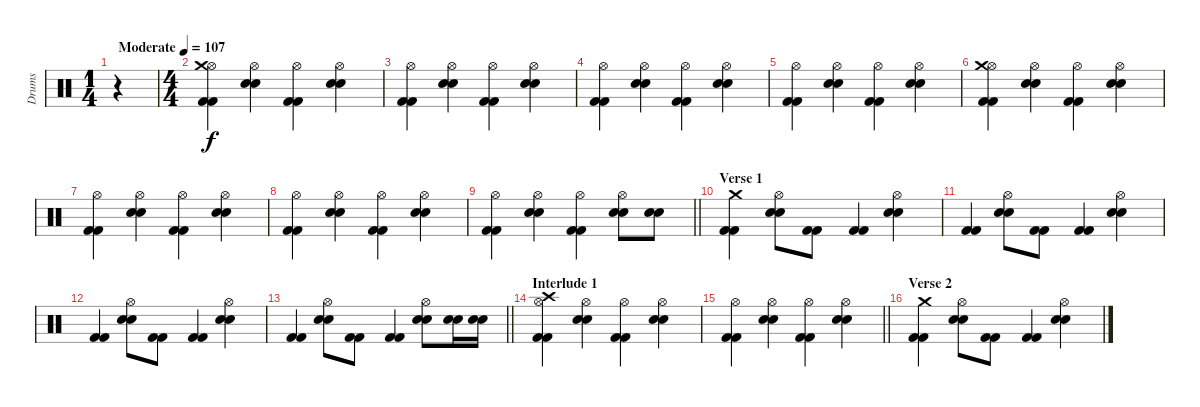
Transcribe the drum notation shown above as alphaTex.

\track ("Drums" "Drums") {instrument percussion}
\staff {score}
\articulation defaults
\ts (1 4)
\tempo (107 "Moderate")
\clef neutral
\ks c
r.4{dy f} |
\ts (4 4)
("Kick (hit) 2" "Kick (hit) 2" "Hi-Hat (open)" "Crash medium (hit)").4 ("Snare (hit) 2" "Snare (hit) 2" "Hi-Hat (open)").4 ("Kick (hit) 2" "Kick (hit) 2" "Hi-Hat (open)").4 ("Snare (hit) 2" "Snare (hit) 2" "Hi-Hat (open)").4 |
("Kick (hit) 2" "Kick (hit) 2" "Hi-Hat (open)").4 ("Snare (hit) 2" "Snare (hit) 2" "Hi-Hat (open)").4 ("Kick (hit) 2" "Kick (hit) 2" "Hi-Hat (open)").4 ("Snare (hit) 2" "Snare (hit) 2" "Hi-Hat (open)").4 |
("Kick (hit) 2" "Kick (hit) 2" "Hi-Hat (open)").4 ("Snare (hit) 2" "Snare (hit) 2" "Hi-Hat (open)").4 ("Kick (hit) 2" "Kick (hit) 2" "Hi-Hat (open)").4 ("Snare (hit) 2" "Snare (hit) 2" "Hi-Hat (open)").4 |
("Kick (hit) 2" "Kick (hit) 2" "Hi-Hat (open)").4 ("Snare (hit) 2" "Snare (hit) 2" "Hi-Hat (open)").4 ("Kick (hit) 2" "Kick (hit) 2" "Hi-Hat (open)").4 ("Snare (hit) 2" "Snare (hit) 2" "Hi-Hat (open)").4 |
("Kick (hit) 2" "Kick (hit) 2" "Hi-Hat (open)" "Crash medium (hit)").4 ("Snare (hit) 2" "Snare (hit) 2" "Hi-Hat (open)").4 ("Kick (hit) 2" "Kick (hit) 2" "Hi-Hat (open)").4 ("Snare (hit) 2" "Snare (hit) 2" "Hi-Hat (open)").4 |
("Kick (hit) 2" "Kick (hit) 2" "Hi-Hat (open)").4 ("Snare (hit) 2" "Snare (hit) 2" "Hi-Hat (open)").4 ("Kick (hit) 2" "Kick (hit) 2" "Hi-Hat (open)").4 ("Snare (hit) 2" "Snare (hit) 2" "Hi-Hat (open)").4 |
("Kick (hit) 2" "Kick (hit) 2" "Hi-Hat (open)").4 ("Snare (hit) 2" "Snare (hit) 2" "Hi-Hat (open)").4 ("Kick (hit) 2" "Kick (hit) 2" "Hi-Hat (open)").4 ("Snare (hit) 2" "Snare (hit) 2" "Hi-Hat (open)").4 |
\barLineRight lightlight
("Kick (hit) 2" "Kick (hit) 2" "Hi-Hat (open)").4 ("Snare (hit) 2" "Snare (hit) 2" "Hi-Hat (open)").4 ("Kick (hit) 2" "Kick (hit) 2" "Hi-Hat (open)").4 ("Snare (hit) 2" "Snare (hit) 2" "Hi-Hat (open)").8 ("Snare (hit) 2" "Snare (hit) 2").8 |
\section ("" "Verse 1")
("Kick (hit) 2" "Kick (hit) 2" "Crash medium (hit)").4 ("Snare (hit) 2" "Snare (hit) 2" "Hi-Hat (open)").8 ("Kick (hit) 2" "Kick (hit) 2").8 ("Kick (hit) 2" "Kick (hit) 2").4 ("Snare (hit) 2" "Snare (hit) 2" "Hi-Hat (open)").4 |
("Kick (hit) 2" "Kick (hit) 2").4 ("Snare (hit) 2" "Snare (hit) 2" "Hi-Hat (open)").8 ("Kick (hit) 2" "Kick (hit) 2").8 ("Kick (hit) 2" "Kick (hit) 2").4 ("Snare (hit) 2" "Snare (hit) 2" "Hi-Hat (open)").4 |
("Kick (hit) 2" "Kick (hit) 2").4 ("Snare (hit) 2" "Snare (hit) 2" "Hi-Hat (open)").8 ("Kick (hit) 2" "Kick (hit) 2").8 ("Kick (hit) 2" "Kick (hit) 2").4 ("Snare (hit) 2" "Snare (hit) 2" "Hi-Hat (open)").4 |
\barLineRight lightlight
("Kick (hit) 2" "Kick (hit) 2").4 ("Snare (hit) 2" "Snare (hit) 2" "Hi-Hat (open)").8 ("Kick (hit) 2" "Kick (hit) 2").8 ("Kick (hit) 2" "Kick (hit) 2").4 ("Snare (hit) 2" "Snare (hit) 2" "Hi-Hat (open)").8 ("Snare (hit) 2" "Snare (hit) 2").16 ("Snare (hit) 2" "Snare (hit) 2").16 |
\section ("" "Interlude 1")
("Kick (hit) 2" "Kick (hit) 2" "Hi-Hat (open)" "Crash high (hit)").4 ("Snare (hit) 2" "Snare (hit) 2" "Hi-Hat (open)").4 ("Kick (hit) 2" "Kick (hit) 2" "Hi-Hat (open)").4 ("Snare (hit) 2" "Snare (hit) 2" "Hi-Hat (open)").4 |
\barLineRight lightlight
("Kick (hit) 2" "Kick (hit) 2" "Hi-Hat (open)").4 ("Snare (hit) 2" "Snare (hit) 2" "Hi-Hat (open)").4 ("Kick (hit) 2" "Kick (hit) 2" "Hi-Hat (open)").4 ("Snare (hit) 2" "Snare (hit) 2" "Hi-Hat (open)").4 |
\section ("" "Verse 2")
("Kick (hit) 2" "Kick (hit) 2" "Crash medium (hit)").4 ("Snare (hit) 2" "Snare (hit) 2" "Hi-Hat (open)").8 ("Kick (hit) 2" "Kick (hit) 2").8 ("Kick (hit) 2" "Kick (hit) 2").4 ("Snare (hit) 2" "Snare (hit) 2" "Hi-Hat (open)").4
